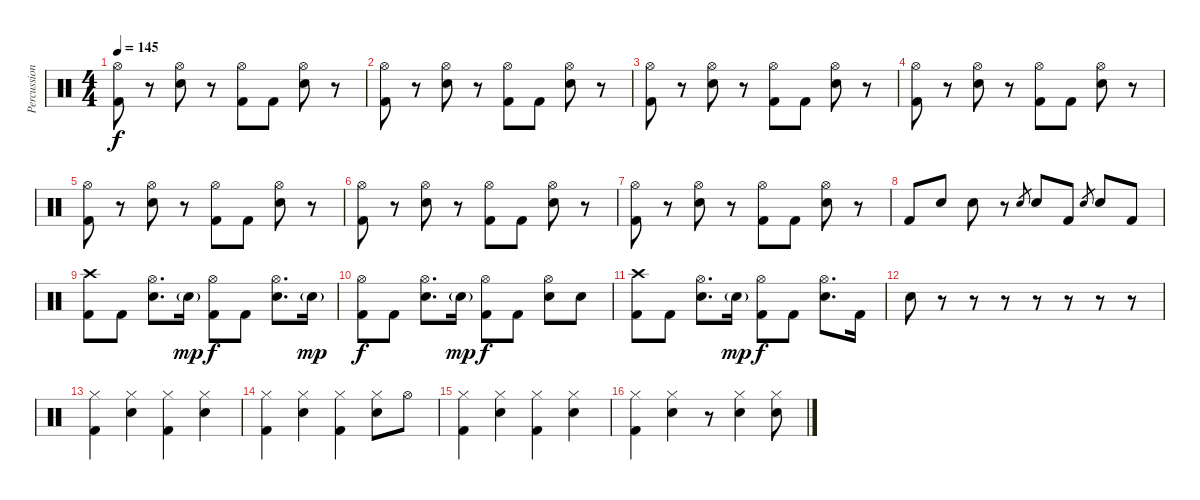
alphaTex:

\track ("Percussion" "Percussion") {instrument percussion}
\staff {score}
\articulation defaults
\ts (4 4)
\tempo 145
\clef neutral
\ks c
("Hi-Hat (open)" "Kick (hit) 2").8{dy f} r.8 ("Hi-Hat (open)" "Electric Snare (hit)").8 r.8 ("Hi-Hat (open)" "Kick (hit) 2").8 "Kick (hit) 2".8 ("Hi-Hat (open)" "Electric Snare (hit)").8 r.8 |
("Hi-Hat (open)" "Kick (hit) 2").8 r.8 ("Hi-Hat (open)" "Electric Snare (hit)").8 r.8 ("Hi-Hat (open)" "Kick (hit) 2").8 "Kick (hit) 2".8 ("Hi-Hat (open)" "Electric Snare (hit)").8 r.8 |
("Hi-Hat (open)" "Kick (hit) 2").8 r.8 ("Hi-Hat (open)" "Electric Snare (hit)").8 r.8 ("Hi-Hat (open)" "Kick (hit) 2").8 "Kick (hit) 2".8 ("Hi-Hat (open)" "Electric Snare (hit)").8 r.8 |
("Hi-Hat (open)" "Kick (hit) 2").8 r.8 ("Hi-Hat (open)" "Electric Snare (hit)").8 r.8 ("Hi-Hat (open)" "Kick (hit) 2").8 "Kick (hit) 2".8 ("Hi-Hat (open)" "Electric Snare (hit)").8 r.8 |
("Hi-Hat (open)" "Kick (hit) 2").8 r.8 ("Hi-Hat (open)" "Electric Snare (hit)").8 r.8 ("Hi-Hat (open)" "Kick (hit) 2").8 "Kick (hit) 2".8 ("Hi-Hat (open)" "Electric Snare (hit)").8 r.8 |
("Hi-Hat (open)" "Kick (hit) 2").8 r.8 ("Hi-Hat (open)" "Electric Snare (hit)").8 r.8 ("Hi-Hat (open)" "Kick (hit) 2").8 "Kick (hit) 2".8 ("Hi-Hat (open)" "Electric Snare (hit)").8 r.8 |
("Hi-Hat (open)" "Kick (hit) 2").8 r.8 ("Hi-Hat (open)" "Electric Snare (hit)").8 r.8 ("Hi-Hat (open)" "Kick (hit) 2").8 "Kick (hit) 2".8 ("Hi-Hat (open)" "Electric Snare (hit)").8 r.8 |
"Kick (hit) 2".8 "Electric Snare (hit)".8 "Electric Snare (hit)".8 r.8 "Electric Snare (hit)".8{gr} "Electric Snare (hit)".8 "Kick (hit) 2".8 "Electric Snare (hit)".8{gr} "Electric Snare (hit)".8 "Kick (hit) 2".8 |
("Crash high (hit)" "Kick (hit) 2").8 "Kick (hit) 2".8 ("Hi-Hat (open)" "Electric Snare (hit)").8{d} "Electric Snare (hit)"{g}.16{dy mp} ("Hi-Hat (open)" "Kick (hit) 2").8{dy f} "Kick (hit) 2".8 ("Hi-Hat (open)" "Electric Snare (hit)").8{d} "Electric Snare (hit)"{g}.16{dy mp} |
("Hi-Hat (open)" "Kick (hit) 2").8{dy f} "Kick (hit) 2".8 ("Hi-Hat (open)" "Electric Snare (hit)").8{d} "Electric Snare (hit)"{g}.16{dy mp} ("Hi-Hat (open)" "Kick (hit) 2").8{dy f} "Kick (hit) 2".8 ("Hi-Hat (open)" "Electric Snare (hit)").8 "Electric Snare (hit)".8 |
("Crash high (hit)" "Kick (hit) 2").8 "Kick (hit) 2".8 ("Hi-Hat (open)" "Electric Snare (hit)").8{d} "Electric Snare (hit)"{g}.16{dy mp} ("Hi-Hat (open)" "Kick (hit) 2").8{dy f} "Kick (hit) 2".8 ("Hi-Hat (open)" "Electric Snare (hit)").8{d} "Kick (hit) 2".16 |
"Electric Snare (hit)".8 r.8 r.8 r.8 r.8 r.8 r.8 r.8 |
("Hi-Hat (closed)" "Kick (hit) 2").4 ("Hi-Hat (closed)" "Electric Snare (hit)").4 ("Hi-Hat (closed)" "Kick (hit) 2").4 ("Hi-Hat (closed)" "Electric Snare (hit)").4 |
("Hi-Hat (closed)" "Kick (hit) 2").4 ("Hi-Hat (closed)" "Electric Snare (hit)").4 ("Hi-Hat (closed)" "Kick (hit) 2").4 ("Hi-Hat (closed)" "Electric Snare (hit)").8 "Hi-Hat (open)".8 |
("Hi-Hat (closed)" "Kick (hit) 2").4 ("Hi-Hat (closed)" "Electric Snare (hit)").4 ("Hi-Hat (closed)" "Kick (hit) 2").4 ("Hi-Hat (closed)" "Electric Snare (hit)").4 |
("Hi-Hat (closed)" "Kick (hit) 2").4 ("Hi-Hat (closed)" "Electric Snare (hit)").4 r.8 ("Hi-Hat (closed)" "Electric Snare (hit)").4 ("Hi-Hat (closed)" "Electric Snare (hit)").8
